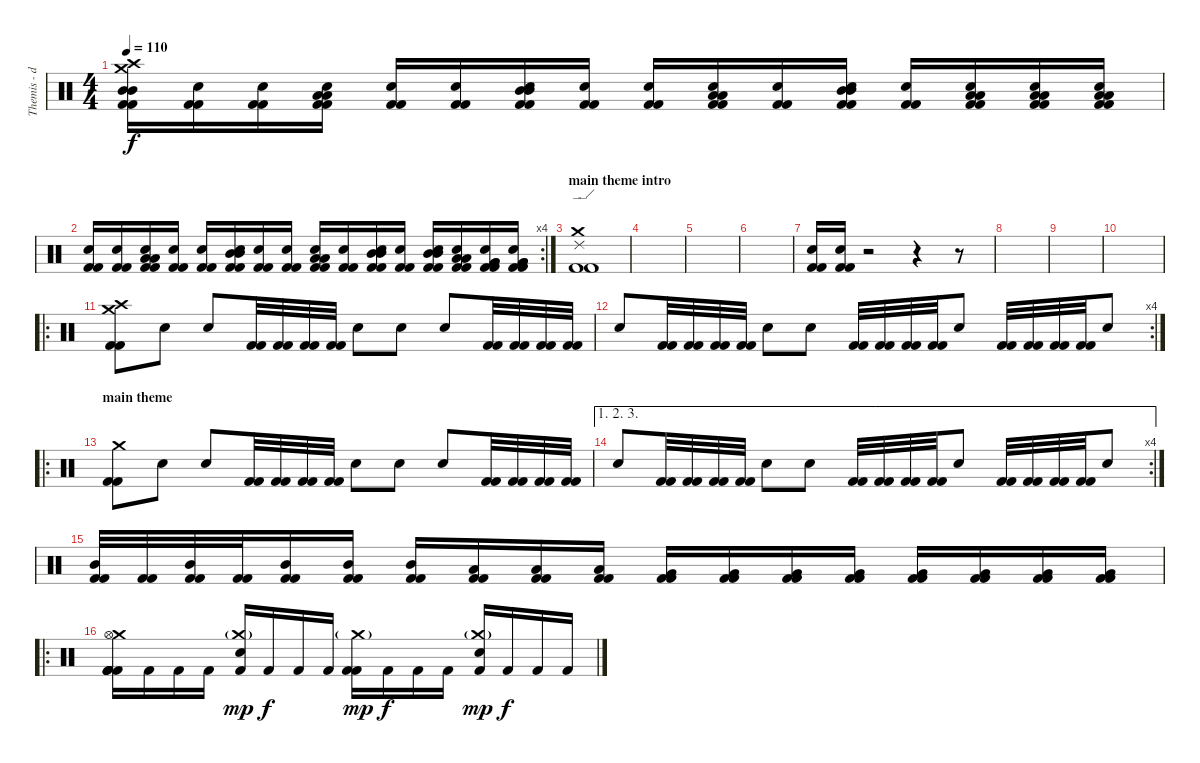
\track ("Themis - drms" "Themis - d") {instrument percussion}
\staff {score}
\articulation defaults
\ts (4 4)
\tempo 110
\clef neutral
\ks c
("Mid Tom (hit)" "Mid Tom (hit)" "Crash high (hit)" "Kick (hit) 2" "Kick (hit) 2" "Crash medium (hit)").16{dy f} ("Kick (hit) 2" "Kick (hit) 2" "Snare (hit)"{x}).16 ("Kick (hit) 2" "Kick (hit) 2" "Snare (hit)"{x}).16 ("Low Tom (hit)" "Low Tom (hit)" "Kick (hit) 2" "Kick (hit) 2" "Snare (hit)"{x}).16 ("Kick (hit) 2" "Kick (hit) 2" "Snare (hit)"{x}).16 ("Kick (hit) 2" "Kick (hit) 2" "Snare (hit)"{x}).16 ("Mid Tom (hit)" "Mid Tom (hit)" "Kick (hit) 2" "Kick (hit) 2" "Snare (hit)"{x}).16 ("Kick (hit) 2" "Kick (hit) 2" "Snare (hit)"{x}).16 ("Kick (hit) 2" "Kick (hit) 2" "Snare (hit)"{x}).16 ("Low Tom (hit)" "Low Tom (hit)" "Kick (hit) 2" "Kick (hit) 2" "Snare (hit)"{x}).16 ("Kick (hit) 2" "Kick (hit) 2" "Snare (hit)"{x}).16 ("Mid Tom (hit)" "Mid Tom (hit)" "Kick (hit) 2" "Kick (hit) 2" "Snare (hit)"{x}).16 ("Kick (hit) 2" "Kick (hit) 2" "Snare (hit)"{x}).16 ("Low Tom (hit)" "Low Tom (hit)" "Kick (hit) 2" "Kick (hit) 2" "Snare (hit)"{x}).16 ("Low Tom (hit)" "Low Tom (hit)" "Kick (hit) 2" "Kick (hit) 2" "Snare (hit)"{x}).16 ("Low Tom (hit)" "Low Tom (hit)" "Kick (hit) 2" "Kick (hit) 2" "Snare (hit)"{x}).16 |
\rc 4
("Kick (hit) 2" "Kick (hit) 2" "Snare (hit)"{x}).16 ("Kick (hit) 2" "Kick (hit) 2" "Snare (hit)"{x}).16 ("Low Tom (hit)" "Low Tom (hit)" "Kick (hit) 2" "Kick (hit) 2" "Snare (hit)"{x}).16 ("Kick (hit) 2" "Kick (hit) 2" "Snare (hit)"{x}).16 ("Kick (hit) 2" "Kick (hit) 2" "Snare (hit)"{x}).16 ("Mid Tom (hit)" "Mid Tom (hit)" "Kick (hit) 2" "Kick (hit) 2" "Snare (hit)"{x}).16 ("Kick (hit) 2" "Kick (hit) 2" "Snare (hit)"{x}).16 ("Kick (hit) 2" "Kick (hit) 2" "Snare (hit)"{x}).16 ("Low Tom (hit)" "Low Tom (hit)" "Kick (hit) 2" "Kick (hit) 2" "Snare (hit)"{x}).16 ("Kick (hit) 2" "Kick (hit) 2" "Snare (hit)"{x}).16 ("Mid Tom (hit)" "Mid Tom (hit)" "Kick (hit) 2" "Kick (hit) 2" "Snare (hit)"{x}).16 ("Kick (hit) 2" "Kick (hit) 2" "Snare (hit)"{x}).16 ("Mid Tom (hit)" "Mid Tom (hit)" "Kick (hit) 2" "Kick (hit) 2" "Snare (hit)"{x}).16 ("Low Tom (hit)" "Low Tom (hit)" "Kick (hit) 2" "Kick (hit) 2" "Snare (hit)"{x}).16 ("Very Low Tom (hit)" "Very Low Tom (hit)" "Kick (hit) 2" "Kick (hit) 2" "Snare (hit)"{x}).16 ("Very Low Tom (hit)" "Very Low Tom (hit)" "Kick (hit) 2" "Kick (hit) 2" "Snare (hit)"{x}).16 |
\section ("" "main theme intro")
("Crash medium (hit)" "Ride (edge) 2" "Kick (hit) 2" "Kick (hit) 2").1 |
|
|
|
("Snare (hit) 2" "Kick (hit) 2" "Kick (hit) 2").16 ("Snare (hit) 2" "Kick (hit) 2" "Kick (hit) 2").16 r.2 r.4 r.8 |
|
|
|
\ro
("Crash medium (hit)" "Crash high (hit)" "Kick (hit) 2" "Kick (hit) 2").8 "Snare (hit)"{x}.8 "Snare (hit)"{x}.8 ("Kick (hit) 2" "Kick (hit) 2").32 ("Kick (hit) 2" "Kick (hit) 2").32 ("Kick (hit) 2" "Kick (hit) 2").32 ("Kick (hit) 2" "Kick (hit) 2").32 "Snare (hit)"{x}.8 "Snare (hit)"{x}.8 "Snare (hit)"{x}.8 ("Kick (hit) 2" "Kick (hit) 2").32 ("Kick (hit) 2" "Kick (hit) 2").32 ("Kick (hit) 2" "Kick (hit) 2").32 ("Kick (hit) 2" "Kick (hit) 2").32 |
\rc 4 "Snare (hit)"{x}.8
("Kick (hit) 2" "Kick (hit) 2").32 ("Kick (hit) 2" "Kick (hit) 2").32 ("Kick (hit) 2" "Kick (hit) 2").32 ("Kick (hit) 2" "Kick (hit) 2").32 "Snare (hit)"{x}.8 "Snare (hit)"{x}.8 ("Kick (hit) 2" "Kick (hit) 2").32 ("Kick (hit) 2" "Kick (hit) 2").32 ("Kick (hit) 2" "Kick (hit) 2").32 ("Kick (hit) 2" "Kick (hit) 2").32 "Snare (hit)"{x}.8 ("Kick (hit) 2" "Kick (hit) 2").32 ("Kick (hit) 2" "Kick (hit) 2").32 ("Kick (hit) 2" "Kick (hit) 2").32 ("Kick (hit) 2" "Kick (hit) 2").32 "Snare (hit)"{x}.8 |
\ro
\section ("" "main theme")
("Crash medium (hit)" "Kick (hit) 2" "Kick (hit) 2").8 "Snare (hit)"{x}.8 "Snare (hit)"{x}.8 ("Kick (hit) 2" "Kick (hit) 2").32 ("Kick (hit) 2" "Kick (hit) 2").32 ("Kick (hit) 2" "Kick (hit) 2").32 ("Kick (hit) 2" "Kick (hit) 2").32 "Snare (hit)"{x}.8 "Snare (hit)"{x}.8 "Snare (hit)"{x}.8 ("Kick (hit) 2" "Kick (hit) 2").32 ("Kick (hit) 2" "Kick (hit) 2").32 ("Kick (hit) 2" "Kick (hit) 2").32 ("Kick (hit) 2" "Kick (hit) 2").32 |
\ae (1 2 3)
\rc 4 "Snare (hit)"{x}.8
("Kick (hit) 2" "Kick (hit) 2").32 ("Kick (hit) 2" "Kick (hit) 2").32 ("Kick (hit) 2" "Kick (hit) 2").32 ("Kick (hit) 2" "Kick (hit) 2").32 "Snare (hit)"{x}.8 "Snare (hit)"{x}.8 ("Kick (hit) 2" "Kick (hit) 2").32 ("Kick (hit) 2" "Kick (hit) 2").32 ("Kick (hit) 2" "Kick (hit) 2").32 ("Kick (hit) 2" "Kick (hit) 2").32 "Snare (hit)"{x}.8 ("Kick (hit) 2" "Kick (hit) 2").32 ("Kick (hit) 2" "Kick (hit) 2").32 ("Kick (hit) 2" "Kick (hit) 2").32 ("Kick (hit) 2" "Kick (hit) 2").32 "Snare (hit)"{x}.8 |
("Mid Tom (hit)" "Kick (hit) 2" "Kick (hit) 2").32 ("Kick (hit) 2" "Kick (hit) 2").32 ("Mid Tom (hit)" "Kick (hit) 2" "Kick (hit) 2").32 ("Kick (hit) 2" "Kick (hit) 2").32 ("Mid Tom (hit)" "Kick (hit) 2" "Kick (hit) 2").16 ("Mid Tom (hit)" "Kick (hit) 2" "Kick (hit) 2").16 ("Mid Tom (hit)" "Kick (hit) 2" "Kick (hit) 2").16 ("Low Tom (hit)" "Kick (hit) 2" "Kick (hit) 2").16 ("Low Tom (hit)" "Kick (hit) 2" "Kick (hit) 2").16 ("Low Tom (hit)" "Kick (hit) 2" "Kick (hit) 2").16 ("Very Low Tom (hit)" "Kick (hit) 2" "Kick (hit) 2").16 ("Very Low Tom (hit)" "Kick (hit) 2" "Kick (hit) 2").16 ("Very Low Tom (hit)" "Kick (hit) 2" "Kick (hit) 2").16 ("Very Low Tom (hit)" "Kick (hit) 2" "Kick (hit) 2").16 ("Very Low Tom (hit)" "Kick (hit) 2" "Kick (hit) 2").16 ("Very Low Tom (hit)" "Kick (hit) 2" "Kick (hit) 2").16 ("Very Low Tom (hit)" "Kick (hit) 2" "Kick (hit) 2").16 ("Very Low Tom (hit)" "Kick (hit) 2" "Kick (hit) 2").16 |
\ro
("Kick (hit) 2" "Crash medium (hit)" "Hi-Hat (open)" "Kick (hit) 2" "Kick (hit) 2" "Kick (hit) 2").16 "Kick (hit) 2".16 "Kick (hit) 2".16 "Kick (hit) 2".16 ("Crash medium (hit)"{g} "Snare (hit) 2" "Kick (hit) 2").16{dy mp} "Kick (hit) 2".16{dy f} "Kick (hit) 2".16 "Kick (hit) 2".16 ("Crash medium (hit)"{g} "Kick (hit) 2" "Kick (hit) 2").16{dy mp} "Kick (hit) 2".16{dy f} "Kick (hit) 2".16 "Kick (hit) 2".16 ("Crash medium (hit)"{g} "Snare (hit) 2" "Kick (hit) 2").16{dy mp} "Kick (hit) 2".16{dy f} "Kick (hit) 2".16 "Kick (hit) 2".16
